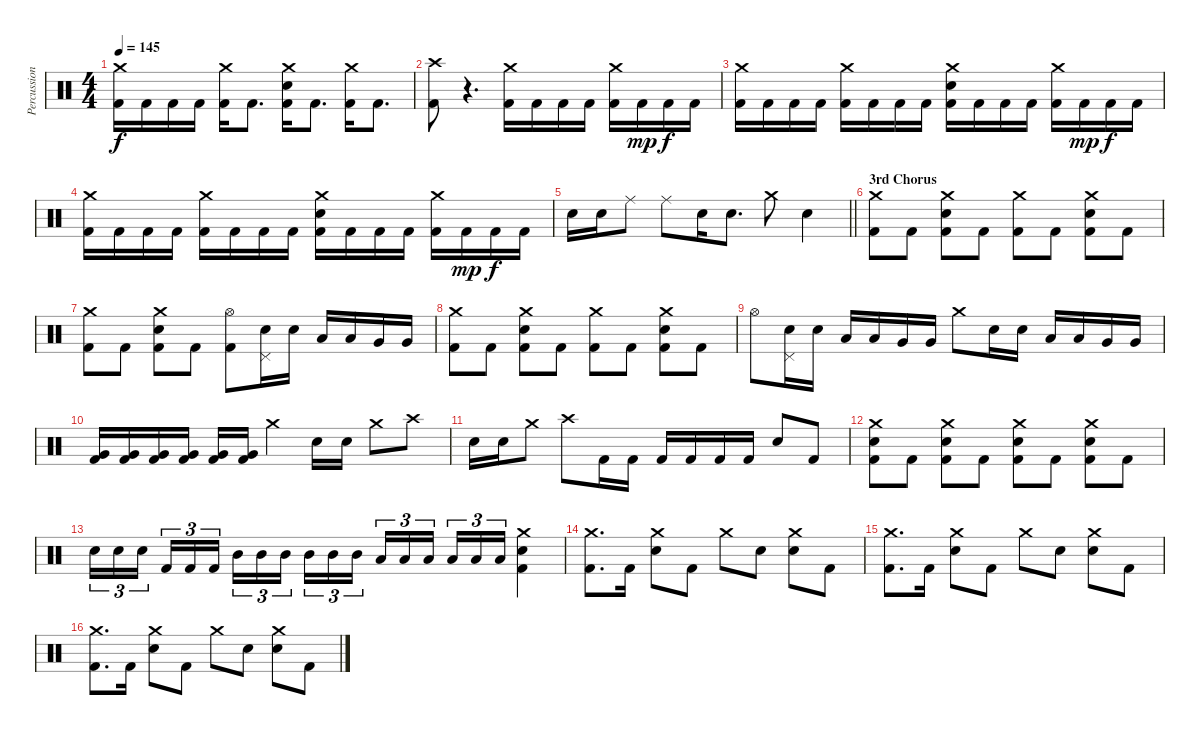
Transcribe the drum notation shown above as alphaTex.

\track ("Percussion" "Percussion") {instrument percussion}
\staff {score}
\articulation defaults
\ts (4 4)
\tempo 145
\clef neutral
\ks c
("Crash medium (hit)" "Kick (hit) 2").16{dy f} "Kick (hit) 2".16 "Kick (hit) 2".16 "Kick (hit) 2".16 ("Crash medium (hit)" "Kick (hit) 2").16 "Kick (hit) 2".8{d} ("Crash medium (hit)" "Electric Snare (hit)" "Kick (hit) 2").16 "Kick (hit) 2".8{d} ("Crash medium (hit)" "Kick (hit) 2").16 "Kick (hit) 2".8{d} |
("Crash high (hit)" "Kick (hit) 2").8 r.4{d volume 0} ("Crash medium (hit)" "Kick (hit) 2").16{volume 13} "Kick (hit) 2".16 "Kick (hit) 2".16 "Kick (hit) 2".16 ("Crash medium (hit)" "Kick (hit) 2").16 "Kick (hit) 2".16{dy mp} "Kick (hit) 2".16{dy f} "Kick (hit) 2".16 |
("Crash medium (hit)" "Kick (hit) 2").16 "Kick (hit) 2".16 "Kick (hit) 2".16 "Kick (hit) 2".16 ("Crash medium (hit)" "Kick (hit) 2").16 "Kick (hit) 2".16 "Kick (hit) 2".16 "Kick (hit) 2".16 ("Crash medium (hit)" "Electric Snare (hit)" "Kick (hit) 2").16 "Kick (hit) 2".16 "Kick (hit) 2".16 "Kick (hit) 2".16 ("Crash medium (hit)" "Kick (hit) 2").16 "Kick (hit) 2".16{dy mp} "Kick (hit) 2".16{dy f} "Kick (hit) 2".16 |
("Crash medium (hit)" "Kick (hit) 2").16 "Kick (hit) 2".16 "Kick (hit) 2".16 "Kick (hit) 2".16 ("Crash medium (hit)" "Kick (hit) 2").16 "Kick (hit) 2".16 "Kick (hit) 2".16 "Kick (hit) 2".16 ("Crash medium (hit)" "Electric Snare (hit)" "Kick (hit) 2").16 "Kick (hit) 2".16 "Kick (hit) 2".16 "Kick (hit) 2".16 ("Crash medium (hit)" "Kick (hit) 2").16 "Kick (hit) 2".16{dy mp} "Kick (hit) 2".16{dy f} "Kick (hit) 2".16 |
\barLineRight lightlight "Electric Snare (hit)".16 "Electric Snare (hit)".16 "Ride (middle)".8 "Ride (middle)".8 "Electric Snare (hit)".16 "Electric Snare (hit)".8{d} "Crash medium (hit)".8 "Electric Snare (hit)".4
|
\section ("" "3rd Chorus")
("Crash medium (hit)" "Kick (hit) 2").8 "Kick (hit) 2".8 ("Crash medium (hit)" "Electric Snare (hit)" "Kick (hit) 2").8 "Kick (hit) 2".8 ("Crash medium (hit)" "Kick (hit) 2").8 "Kick (hit) 2".8 ("Crash medium (hit)" "Electric Snare (hit)" "Kick (hit) 2").8 "Kick (hit) 2".8 |
("Crash medium (hit)" "Kick (hit) 2").8 "Kick (hit) 2".8 ("Crash medium (hit)" "Electric Snare (hit)" "Kick (hit) 2").8 "Kick (hit) 2".8 ("Hi-Hat (open)" "Kick (hit) 2").8 ("Pedal Hi-Hat (hit)" "Electric Snare (hit)").16 "Electric Snare (hit)".16 "Low Tom (hit)".16 "Low Tom (hit)".16 "Very Low Tom (hit)".16 "Very Low Tom (hit)".16 |
("Crash medium (hit)" "Kick (hit) 2").8 "Kick (hit) 2".8 ("Crash medium (hit)" "Electric Snare (hit)" "Kick (hit) 2").8 "Kick (hit) 2".8 ("Crash medium (hit)" "Kick (hit) 2").8 "Kick (hit) 2".8 ("Crash medium (hit)" "Electric Snare (hit)" "Kick (hit) 2").8 "Kick (hit) 2".8 |
"Hi-Hat (open)".8 ("Pedal Hi-Hat (hit)" "Electric Snare (hit)").16 "Electric Snare (hit)".16 "Low Tom (hit)".16 "Low Tom (hit)".16 "Very Low Tom (hit)".16 "Very Low Tom (hit)".16 "Crash medium (hit)".8 "Electric Snare (hit)".16 "Electric Snare (hit)".16 "Low Tom (hit)".16 "Low Tom (hit)".16 "Very Low Tom (hit)".16 "Very Low Tom (hit)".16 |
("Very Low Tom (hit)" "Kick (hit) 2").16 ("Very Low Tom (hit)" "Kick (hit) 2").16 ("Very Low Tom (hit)" "Kick (hit) 2").16 ("Very Low Tom (hit)" "Kick (hit) 2").16 ("Very Low Tom (hit)" "Kick (hit) 2").16 ("Very Low Tom (hit)" "Kick (hit) 2").16 "Crash medium (hit)".4 "Electric Snare (hit)".16 "Electric Snare (hit)".16 "Crash medium (hit)".8 "Crash high (hit)".8 |
"Electric Snare (hit)".16 "Electric Snare (hit)".16 "Crash medium (hit)".8 "Crash high (hit)".8 "Kick (hit) 2".16 "Kick (hit) 2".16 "Kick (hit) 2".16 "Kick (hit) 2".16 "Kick (hit) 2".16 "Kick (hit) 2".16 "Electric Snare (hit)".8 "Kick (hit) 2".8 |
("Crash medium (hit)" "Electric Snare (hit)" "Kick (hit) 2").8 "Kick (hit) 2".8 ("Crash medium (hit)" "Electric Snare (hit)" "Kick (hit) 2").8 "Kick (hit) 2".8 ("Crash medium (hit)" "Electric Snare (hit)" "Kick (hit) 2").8 "Kick (hit) 2".8 ("Crash medium (hit)" "Electric Snare (hit)" "Kick (hit) 2").8 "Kick (hit) 2".8 |
"Electric Snare (hit)".16{tu (3 2)} "Electric Snare (hit)".16{tu (3 2)} "Electric Snare (hit)".16{tu (3 2) beam splitsecondary} "Kick (hit) 2".16{tu (3 2)} "Kick (hit) 2".16{tu (3 2)} "Kick (hit) 2".16{tu (3 2)} "Mid Tom (hit)".16{tu (3 2)} "Mid Tom (hit)".16{tu (3 2)} "Mid Tom (hit)".16{tu (3 2) beam splitsecondary} "Mid Tom (hit)".16{tu (3 2)} "Mid Tom (hit)".16{tu (3 2)} "Mid Tom (hit)".16{tu (3 2)} "Low Tom (hit)".16{tu (3 2)} "Low Tom (hit)".16{tu (3 2)} "Low Tom (hit)".16{tu (3 2) beam splitsecondary} "Low Tom (hit)".16{tu (3 2)} "Low Tom (hit)".16{tu (3 2)} "Low Tom (hit)".16{tu (3 2)} ("Crash medium (hit)" "Electric Snare (hit)" "Kick (hit) 2").4 |
("Crash medium (hit)" "Kick (hit) 2").8{d} "Kick (hit) 2".16 ("Crash medium (hit)" "Electric Snare (hit)").8 "Kick (hit) 2".8 "Crash medium (hit)".8 "Electric Snare (hit)".8 ("Crash medium (hit)" "Electric Snare (hit)").8 "Kick (hit) 2".8 |
("Crash medium (hit)" "Kick (hit) 2").8{d} "Kick (hit) 2".16 ("Crash medium (hit)" "Electric Snare (hit)").8 "Kick (hit) 2".8 "Crash medium (hit)".8 "Electric Snare (hit)".8 ("Crash medium (hit)" "Electric Snare (hit)").8 "Kick (hit) 2".8 |
("Crash medium (hit)" "Kick (hit) 2").8{d} "Kick (hit) 2".16 ("Crash medium (hit)" "Electric Snare (hit)").8 "Kick (hit) 2".8 "Crash medium (hit)".8 "Electric Snare (hit)".8 ("Crash medium (hit)" "Electric Snare (hit)").8 "Kick (hit) 2".8
